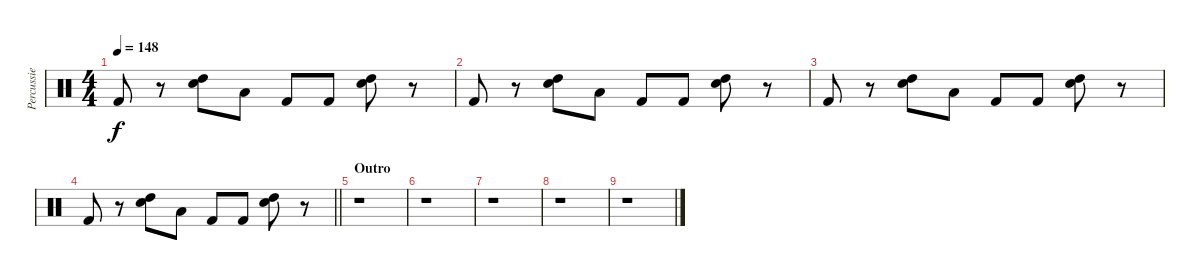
\track ("Percussie" "Percussie") {instrument percussion}
\staff {score}
\articulation defaults
\ts (4 4)
\tempo 148
\clef neutral
\ks c "Kick (hit) 2".8{dy f}
r.8 ("Electric Snare (hit)" "High Tom (hit)").8 "Low Tom (hit)".8 "Kick (hit) 2".8 "Kick (hit) 2".8 ("Electric Snare (hit)" "High Tom (hit)").8 r.8 |
"Kick (hit) 2".8 r.8 ("Electric Snare (hit)" "High Tom (hit)").8 "Low Tom (hit)".8 "Kick (hit) 2".8 "Kick (hit) 2".8 ("Electric Snare (hit)" "High Tom (hit)").8 r.8 |
"Kick (hit) 2".8 r.8 ("Electric Snare (hit)" "High Tom (hit)").8 "Low Tom (hit)".8 "Kick (hit) 2".8 "Kick (hit) 2".8 ("Electric Snare (hit)" "High Tom (hit)").8 r.8 |
\barLineRight lightlight "Kick (hit) 2".8
r.8 ("Electric Snare (hit)" "High Tom (hit)").8 "Low Tom (hit)".8 "Kick (hit) 2".8 "Kick (hit) 2".8 ("Electric Snare (hit)" "High Tom (hit)").8 r.8 |
\section ("" "Outro")
r.1 |
r.1 |
r.1 |
r.1 |
r.1
